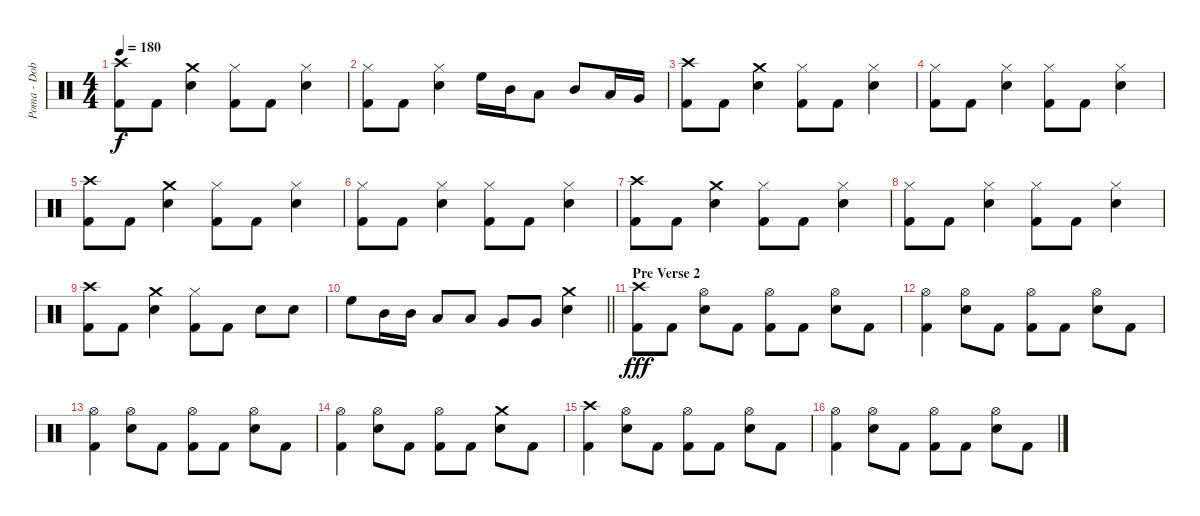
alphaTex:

\track ("Poma - Dob" "Poma - Dob") {instrument percussion}
\staff {score}
\articulation defaults
\ts (4 4)
\tempo 180
\clef neutral
\ks c
("Crash high (hit)" "Kick (hit) 2").8{dy f} "Kick (hit) 2".8 ("Crash medium (hit)" "Electric Snare (hit)").4 ("Hi-Hat (closed)" "Kick (hit) 2").8 "Kick (hit) 2".8 ("Hi-Hat (closed)" "Electric Snare (hit)").4 |
("Hi-Hat (closed)" "Kick (hit) 2").8 "Kick (hit) 2".8 ("Hi-Hat (closed)" "Electric Snare (hit)").4 "High Floor Tom (hit)".16 "Mid Tom (hit)".16 "Low Tom (hit)".8 "Mid Tom (hit)".8 "Low Tom (hit)".16 "Very Low Tom (hit)".16 |
("Crash high (hit)" "Kick (hit) 2").8 "Kick (hit) 2".8 ("Crash medium (hit)" "Electric Snare (hit)").4 ("Hi-Hat (closed)" "Kick (hit) 2").8 "Kick (hit) 2".8 ("Hi-Hat (closed)" "Electric Snare (hit)").4 |
("Hi-Hat (closed)" "Kick (hit) 2").8 "Kick (hit) 2".8 ("Hi-Hat (closed)" "Electric Snare (hit)").4 ("Hi-Hat (closed)" "Kick (hit) 2").8 "Kick (hit) 2".8 ("Hi-Hat (closed)" "Electric Snare (hit)").4 |
("Crash high (hit)" "Kick (hit) 2").8 "Kick (hit) 2".8 ("Crash medium (hit)" "Electric Snare (hit)").4 ("Hi-Hat (closed)" "Kick (hit) 2").8 "Kick (hit) 2".8 ("Hi-Hat (closed)" "Electric Snare (hit)").4 |
("Hi-Hat (closed)" "Kick (hit) 2").8 "Kick (hit) 2".8 ("Hi-Hat (closed)" "Electric Snare (hit)").4 ("Hi-Hat (closed)" "Kick (hit) 2").8 "Kick (hit) 2".8 ("Hi-Hat (closed)" "Electric Snare (hit)").4 |
("Crash high (hit)" "Kick (hit) 2").8 "Kick (hit) 2".8 ("Crash medium (hit)" "Electric Snare (hit)").4 ("Hi-Hat (closed)" "Kick (hit) 2").8 "Kick (hit) 2".8 ("Hi-Hat (closed)" "Electric Snare (hit)").4 |
("Hi-Hat (closed)" "Kick (hit) 2").8 "Kick (hit) 2".8 ("Hi-Hat (closed)" "Electric Snare (hit)").4 ("Hi-Hat (closed)" "Kick (hit) 2").8 "Kick (hit) 2".8 ("Hi-Hat (closed)" "Electric Snare (hit)").4 |
("Crash high (hit)" "Kick (hit) 2").8 "Kick (hit) 2".8 ("Crash medium (hit)" "Electric Snare (hit)").4 ("Hi-Hat (closed)" "Kick (hit) 2").8 "Kick (hit) 2".8 "Electric Snare (hit)".8 "Electric Snare (hit)".8 |
\barLineRight lightlight "High Floor Tom (hit)".8 "Mid Tom (hit)".16 "Mid Tom (hit)".16 "Low Tom (hit)".8 "Low Tom (hit)".8 "Very Low Tom (hit)".8 "Very Low Tom (hit)".8
("Crash medium (hit)" "Electric Snare (hit)").4 |
\section ("" "Pre Verse 2")
("Crash high (hit)" "Kick (hit) 2").8{dy fff} "Kick (hit) 2".8 ("Hi-Hat (open)" "Electric Snare (hit)").8 "Kick (hit) 2".8 ("Hi-Hat (open)" "Kick (hit) 2").8 "Kick (hit) 2".8 ("Hi-Hat (open)" "Electric Snare (hit)").8 "Kick (hit) 2".8 |
("Hi-Hat (open)" "Kick (hit) 2").4 ("Hi-Hat (open)" "Electric Snare (hit)").8 "Kick (hit) 2".8 ("Hi-Hat (open)" "Kick (hit) 2").8 "Kick (hit) 2".8 ("Hi-Hat (open)" "Electric Snare (hit)").8 "Kick (hit) 2".8 |
("Hi-Hat (open)" "Kick (hit) 2").4 ("Hi-Hat (open)" "Electric Snare (hit)").8 "Kick (hit) 2".8 ("Hi-Hat (open)" "Kick (hit) 2").8 "Kick (hit) 2".8 ("Hi-Hat (open)" "Electric Snare (hit)").8 "Kick (hit) 2".8 |
("Hi-Hat (open)" "Kick (hit) 2").4 ("Hi-Hat (open)" "Electric Snare (hit)").8 "Kick (hit) 2".8 ("Hi-Hat (open)" "Kick (hit) 2").8 "Kick (hit) 2".8 ("Crash medium (hit)" "Electric Snare (hit)").8 "Kick (hit) 2".8 |
("Crash high (hit)" "Kick (hit) 2").4 ("Hi-Hat (open)" "Electric Snare (hit)").8 "Kick (hit) 2".8 ("Hi-Hat (open)" "Kick (hit) 2").8 "Kick (hit) 2".8 ("Hi-Hat (open)" "Electric Snare (hit)").8 "Kick (hit) 2".8 |
("Hi-Hat (open)" "Kick (hit) 2").4 ("Hi-Hat (open)" "Electric Snare (hit)").8 "Kick (hit) 2".8 ("Hi-Hat (open)" "Kick (hit) 2").8 "Kick (hit) 2".8 ("Hi-Hat (open)" "Electric Snare (hit)").8 "Kick (hit) 2".8
